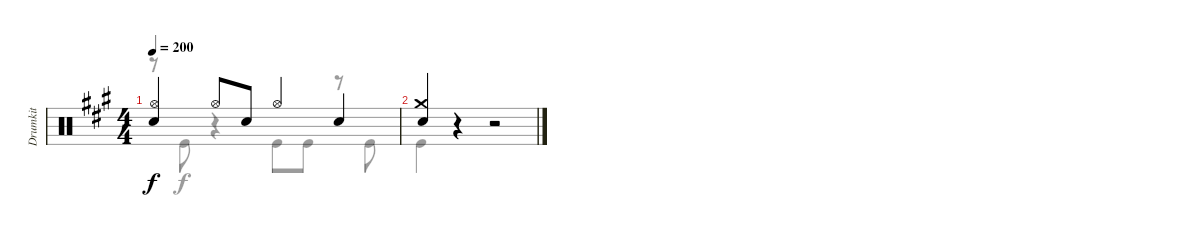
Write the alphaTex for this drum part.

\track ("Drumkit" "Drumkit") {instrument percussion}
\staff {score}
\articulation defaults
\voice
\ts (4 4)
\tempo 200
\clef neutral
\ks a
("Snare (hit) 2" "Hi-Hat (open)").4{dy f} "Hi-Hat (open)".8 "Snare (hit) 2".8 "Hi-Hat (open)".4 "Snare (hit) 2".4 |
("Crash medium (hit)" "Snare (hit) 2").4 r.4 r.2
\voice
\clef neutral
\ottava regular
\simile none
\ks a
r.8{dy f} "Kick (hit)".8 r.4 "Kick (hit)".8 "Kick (hit)".8 r.8 "Kick (hit)".8 |
"Kick (hit)".4
